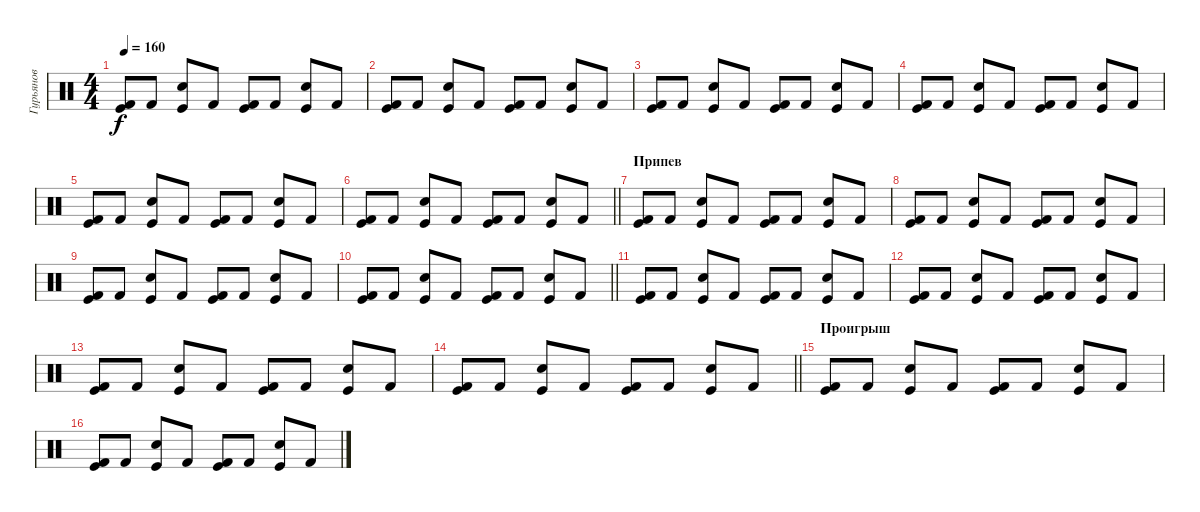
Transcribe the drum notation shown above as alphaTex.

\track ("Гурьянов" "Гурьянов") {instrument percussion}
\staff {score}
\articulation defaults
\ts (4 4)
\tempo 160
\clef neutral
\ks c
("Kick (hit)" "Kick (hit) 2").8{dy f} "Kick (hit) 2".8 ("Snare (hit) 2" "Kick (hit)").8 "Kick (hit) 2".8 ("Kick (hit)" "Kick (hit) 2").8 "Kick (hit) 2".8 ("Snare (hit) 2" "Kick (hit)").8 "Kick (hit) 2".8 |
("Kick (hit)" "Kick (hit) 2").8 "Kick (hit) 2".8 ("Snare (hit) 2" "Kick (hit)").8 "Kick (hit) 2".8 ("Kick (hit)" "Kick (hit) 2").8 "Kick (hit) 2".8 ("Snare (hit) 2" "Kick (hit)").8 "Kick (hit) 2".8 |
("Kick (hit)" "Kick (hit) 2").8 "Kick (hit) 2".8 ("Snare (hit) 2" "Kick (hit)").8 "Kick (hit) 2".8 ("Kick (hit)" "Kick (hit) 2").8 "Kick (hit) 2".8 ("Snare (hit) 2" "Kick (hit)").8 "Kick (hit) 2".8 |
("Kick (hit)" "Kick (hit) 2").8 "Kick (hit) 2".8 ("Snare (hit) 2" "Kick (hit)").8 "Kick (hit) 2".8 ("Kick (hit)" "Kick (hit) 2").8 "Kick (hit) 2".8 ("Snare (hit) 2" "Kick (hit)").8 "Kick (hit) 2".8 |
("Kick (hit)" "Kick (hit) 2").8 "Kick (hit) 2".8 ("Snare (hit) 2" "Kick (hit)").8 "Kick (hit) 2".8 ("Kick (hit)" "Kick (hit) 2").8 "Kick (hit) 2".8 ("Snare (hit) 2" "Kick (hit)").8 "Kick (hit) 2".8 |
\barLineRight lightlight
("Kick (hit)" "Kick (hit) 2").8 "Kick (hit) 2".8 ("Snare (hit) 2" "Kick (hit)").8 "Kick (hit) 2".8 ("Kick (hit)" "Kick (hit) 2").8 "Kick (hit) 2".8 ("Snare (hit) 2" "Kick (hit)").8 "Kick (hit) 2".8 |
\section ("" "Припев")
("Kick (hit)" "Kick (hit) 2").8 "Kick (hit) 2".8 ("Snare (hit) 2" "Kick (hit)").8 "Kick (hit) 2".8 ("Kick (hit)" "Kick (hit) 2").8 "Kick (hit) 2".8 ("Snare (hit) 2" "Kick (hit)").8 "Kick (hit) 2".8 |
("Kick (hit)" "Kick (hit) 2").8 "Kick (hit) 2".8 ("Snare (hit) 2" "Kick (hit)").8 "Kick (hit) 2".8 ("Kick (hit)" "Kick (hit) 2").8 "Kick (hit) 2".8 ("Snare (hit) 2" "Kick (hit)").8 "Kick (hit) 2".8 |
("Kick (hit)" "Kick (hit) 2").8 "Kick (hit) 2".8 ("Snare (hit) 2" "Kick (hit)").8 "Kick (hit) 2".8 ("Kick (hit)" "Kick (hit) 2").8 "Kick (hit) 2".8 ("Snare (hit) 2" "Kick (hit)").8 "Kick (hit) 2".8 |
\barLineRight lightlight
("Kick (hit)" "Kick (hit) 2").8 "Kick (hit) 2".8 ("Snare (hit) 2" "Kick (hit)").8 "Kick (hit) 2".8 ("Kick (hit)" "Kick (hit) 2").8 "Kick (hit) 2".8 ("Snare (hit) 2" "Kick (hit)").8 "Kick (hit) 2".8 |
("Kick (hit)" "Kick (hit) 2").8 "Kick (hit) 2".8 ("Snare (hit) 2" "Kick (hit)").8 "Kick (hit) 2".8 ("Kick (hit)" "Kick (hit) 2").8 "Kick (hit) 2".8 ("Snare (hit) 2" "Kick (hit)").8 "Kick (hit) 2".8 |
("Kick (hit)" "Kick (hit) 2").8 "Kick (hit) 2".8 ("Snare (hit) 2" "Kick (hit)").8 "Kick (hit) 2".8 ("Kick (hit)" "Kick (hit) 2").8 "Kick (hit) 2".8 ("Snare (hit) 2" "Kick (hit)").8 "Kick (hit) 2".8 |
("Kick (hit)" "Kick (hit) 2").8 "Kick (hit) 2".8 ("Snare (hit) 2" "Kick (hit)").8 "Kick (hit) 2".8 ("Kick (hit)" "Kick (hit) 2").8 "Kick (hit) 2".8 ("Snare (hit) 2" "Kick (hit)").8 "Kick (hit) 2".8 |
\barLineRight lightlight
("Kick (hit)" "Kick (hit) 2").8 "Kick (hit) 2".8 ("Snare (hit) 2" "Kick (hit)").8 "Kick (hit) 2".8 ("Kick (hit)" "Kick (hit) 2").8 "Kick (hit) 2".8 ("Snare (hit) 2" "Kick (hit)").8 "Kick (hit) 2".8 |
\section ("" "Проигрыш")
("Kick (hit)" "Kick (hit) 2").8 "Kick (hit) 2".8 ("Snare (hit) 2" "Kick (hit)").8 "Kick (hit) 2".8 ("Kick (hit)" "Kick (hit) 2").8 "Kick (hit) 2".8 ("Snare (hit) 2" "Kick (hit)").8 "Kick (hit) 2".8 |
("Kick (hit)" "Kick (hit) 2").8 "Kick (hit) 2".8 ("Snare (hit) 2" "Kick (hit)").8 "Kick (hit) 2".8 ("Kick (hit)" "Kick (hit) 2").8 "Kick (hit) 2".8 ("Snare (hit) 2" "Kick (hit)").8 "Kick (hit) 2".8
